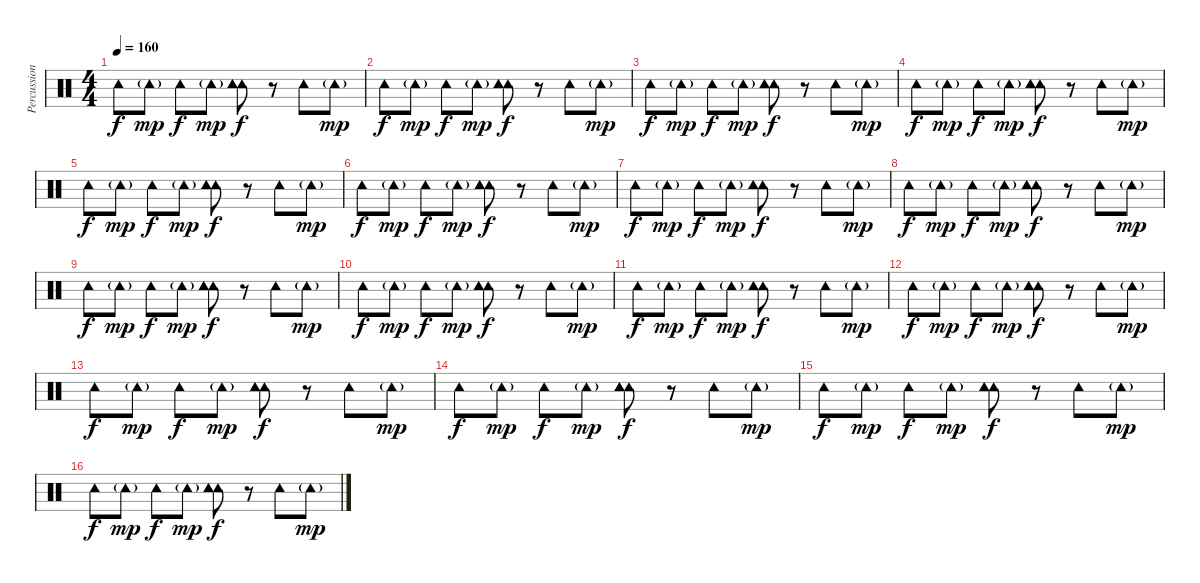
\track ("Percussion" "Percussion") {instrument percussion}
\staff {score}
\articulation defaults
\ts (4 4)
\tempo 160
\clef neutral
\ks c "Tambourine (hit)".8{dy f} "Tambourine (hit)"{g}.8{dy mp} "Tambourine (hit)".8{dy f} "Tambourine (hit)"{g}.8{dy mp}
("Tambourine (hit)" "Tambourine (hit)" "Tambourine (hit)").8{dy f} r.8 "Tambourine (hit)".8 "Tambourine (hit)"{g}.8{dy mp} |
"Tambourine (hit)".8{dy f} "Tambourine (hit)"{g}.8{dy mp} "Tambourine (hit)".8{dy f} "Tambourine (hit)"{g}.8{dy mp} ("Tambourine (hit)" "Tambourine (hit)" "Tambourine (hit)").8{dy f} r.8 "Tambourine (hit)".8 "Tambourine (hit)"{g}.8{dy mp} |
"Tambourine (hit)".8{dy f} "Tambourine (hit)"{g}.8{dy mp} "Tambourine (hit)".8{dy f} "Tambourine (hit)"{g}.8{dy mp} ("Tambourine (hit)" "Tambourine (hit)" "Tambourine (hit)").8{dy f} r.8 "Tambourine (hit)".8 "Tambourine (hit)"{g}.8{dy mp} |
"Tambourine (hit)".8{dy f} "Tambourine (hit)"{g}.8{dy mp} "Tambourine (hit)".8{dy f} "Tambourine (hit)"{g}.8{dy mp} ("Tambourine (hit)" "Tambourine (hit)" "Tambourine (hit)").8{dy f} r.8 "Tambourine (hit)".8 "Tambourine (hit)"{g}.8{dy mp} |
"Tambourine (hit)".8{dy f} "Tambourine (hit)"{g}.8{dy mp} "Tambourine (hit)".8{dy f} "Tambourine (hit)"{g}.8{dy mp} ("Tambourine (hit)" "Tambourine (hit)" "Tambourine (hit)").8{dy f} r.8 "Tambourine (hit)".8 "Tambourine (hit)"{g}.8{dy mp} |
"Tambourine (hit)".8{dy f} "Tambourine (hit)"{g}.8{dy mp} "Tambourine (hit)".8{dy f} "Tambourine (hit)"{g}.8{dy mp} ("Tambourine (hit)" "Tambourine (hit)" "Tambourine (hit)").8{dy f} r.8 "Tambourine (hit)".8 "Tambourine (hit)"{g}.8{dy mp} |
"Tambourine (hit)".8{dy f} "Tambourine (hit)"{g}.8{dy mp} "Tambourine (hit)".8{dy f} "Tambourine (hit)"{g}.8{dy mp} ("Tambourine (hit)" "Tambourine (hit)" "Tambourine (hit)").8{dy f} r.8 "Tambourine (hit)".8 "Tambourine (hit)"{g}.8{dy mp} |
"Tambourine (hit)".8{dy f} "Tambourine (hit)"{g}.8{dy mp} "Tambourine (hit)".8{dy f} "Tambourine (hit)"{g}.8{dy mp} ("Tambourine (hit)" "Tambourine (hit)" "Tambourine (hit)").8{dy f} r.8 "Tambourine (hit)".8 "Tambourine (hit)"{g}.8{dy mp} |
"Tambourine (hit)".8{dy f} "Tambourine (hit)"{g}.8{dy mp} "Tambourine (hit)".8{dy f} "Tambourine (hit)"{g}.8{dy mp} ("Tambourine (hit)" "Tambourine (hit)" "Tambourine (hit)").8{dy f} r.8 "Tambourine (hit)".8 "Tambourine (hit)"{g}.8{dy mp} |
"Tambourine (hit)".8{dy f} "Tambourine (hit)"{g}.8{dy mp} "Tambourine (hit)".8{dy f} "Tambourine (hit)"{g}.8{dy mp} ("Tambourine (hit)" "Tambourine (hit)" "Tambourine (hit)").8{dy f} r.8 "Tambourine (hit)".8 "Tambourine (hit)"{g}.8{dy mp} |
"Tambourine (hit)".8{dy f} "Tambourine (hit)"{g}.8{dy mp} "Tambourine (hit)".8{dy f} "Tambourine (hit)"{g}.8{dy mp} ("Tambourine (hit)" "Tambourine (hit)" "Tambourine (hit)").8{dy f} r.8 "Tambourine (hit)".8 "Tambourine (hit)"{g}.8{dy mp} |
"Tambourine (hit)".8{dy f} "Tambourine (hit)"{g}.8{dy mp} "Tambourine (hit)".8{dy f} "Tambourine (hit)"{g}.8{dy mp} ("Tambourine (hit)" "Tambourine (hit)" "Tambourine (hit)").8{dy f} r.8 "Tambourine (hit)".8 "Tambourine (hit)"{g}.8{dy mp} |
"Tambourine (hit)".8{dy f} "Tambourine (hit)"{g}.8{dy mp} "Tambourine (hit)".8{dy f} "Tambourine (hit)"{g}.8{dy mp} ("Tambourine (hit)" "Tambourine (hit)" "Tambourine (hit)").8{dy f} r.8 "Tambourine (hit)".8 "Tambourine (hit)"{g}.8{dy mp} |
"Tambourine (hit)".8{dy f} "Tambourine (hit)"{g}.8{dy mp} "Tambourine (hit)".8{dy f} "Tambourine (hit)"{g}.8{dy mp} ("Tambourine (hit)" "Tambourine (hit)" "Tambourine (hit)").8{dy f} r.8 "Tambourine (hit)".8 "Tambourine (hit)"{g}.8{dy mp} |
"Tambourine (hit)".8{dy f} "Tambourine (hit)"{g}.8{dy mp} "Tambourine (hit)".8{dy f} "Tambourine (hit)"{g}.8{dy mp} ("Tambourine (hit)" "Tambourine (hit)" "Tambourine (hit)").8{dy f} r.8 "Tambourine (hit)".8 "Tambourine (hit)"{g}.8{dy mp} |
"Tambourine (hit)".8{dy f} "Tambourine (hit)"{g}.8{dy mp} "Tambourine (hit)".8{dy f} "Tambourine (hit)"{g}.8{dy mp} ("Tambourine (hit)" "Tambourine (hit)" "Tambourine (hit)").8{dy f} r.8 "Tambourine (hit)".8 "Tambourine (hit)"{g}.8{dy mp}
